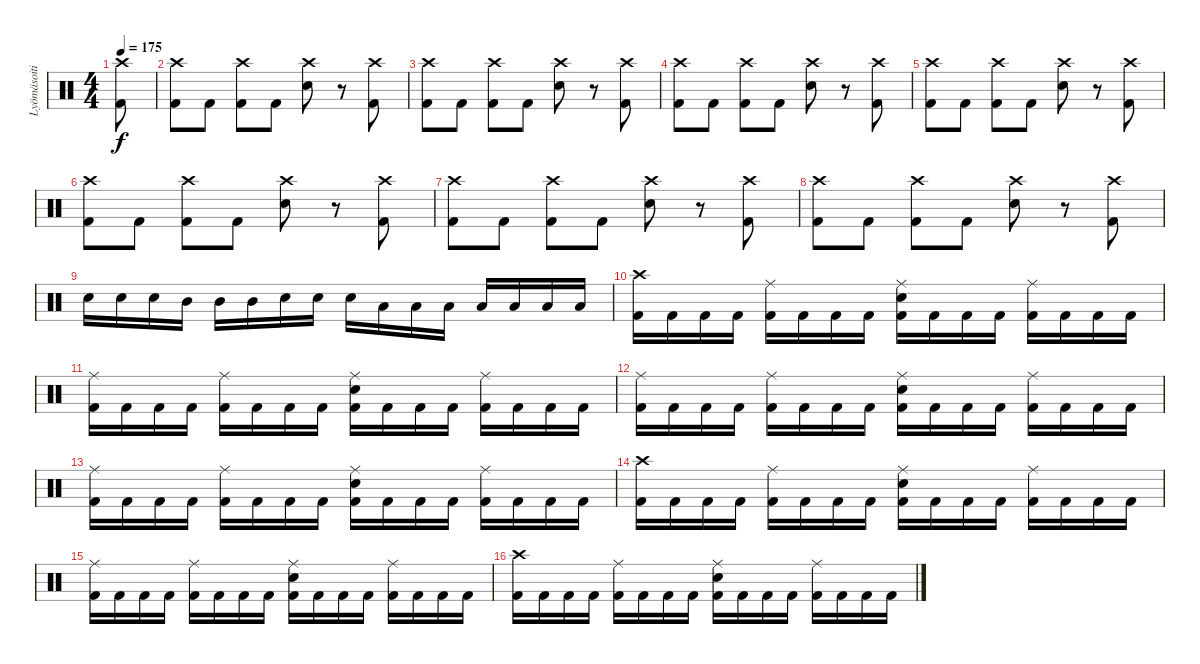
\track ("Lyömäsoitin" "Lyömäsoiti") {instrument percussion}
\staff {score}
\articulation defaults
\ts (4 4)
\tempo 175
\clef neutral
\ks c
("Kick (hit) 2" "Crash high (hit)").8{dy f} |
("Kick (hit) 2" "Crash high (hit)").8 "Kick (hit) 2".8 ("Kick (hit) 2" "Crash high (hit)").8 "Kick (hit) 2".8 ("Electric Snare (hit)" "Crash high (hit)").8 r.8 ("Kick (hit) 2" "Crash high (hit)").8 |
("Kick (hit) 2" "Crash high (hit)").8 "Kick (hit) 2".8 ("Kick (hit) 2" "Crash high (hit)").8 "Kick (hit) 2".8 ("Electric Snare (hit)" "Crash high (hit)").8 r.8 ("Kick (hit) 2" "Crash high (hit)").8 |
("Kick (hit) 2" "Crash high (hit)").8 "Kick (hit) 2".8 ("Kick (hit) 2" "Crash high (hit)").8 "Kick (hit) 2".8 ("Electric Snare (hit)" "Crash high (hit)").8 r.8 ("Kick (hit) 2" "Crash high (hit)").8 |
("Kick (hit) 2" "Crash high (hit)").8 "Kick (hit) 2".8 ("Kick (hit) 2" "Crash high (hit)").8 "Kick (hit) 2".8 ("Electric Snare (hit)" "Crash high (hit)").8 r.8 ("Kick (hit) 2" "Crash high (hit)").8 |
("Kick (hit) 2" "Crash high (hit)").8 "Kick (hit) 2".8 ("Kick (hit) 2" "Crash high (hit)").8 "Kick (hit) 2".8 ("Electric Snare (hit)" "Crash high (hit)").8 r.8 ("Kick (hit) 2" "Crash high (hit)").8 |
("Kick (hit) 2" "Crash high (hit)").8 "Kick (hit) 2".8 ("Kick (hit) 2" "Crash high (hit)").8 "Kick (hit) 2".8 ("Electric Snare (hit)" "Crash high (hit)").8 r.8 ("Kick (hit) 2" "Crash high (hit)").8 |
("Kick (hit) 2" "Crash high (hit)").8 "Kick (hit) 2".8 ("Kick (hit) 2" "Crash high (hit)").8 "Kick (hit) 2".8 ("Electric Snare (hit)" "Crash high (hit)").8 r.8 ("Kick (hit) 2" "Crash high (hit)").8 |
"Electric Snare (hit)".16 "Electric Snare (hit)".16 "Electric Snare (hit)".16 "Mid Tom (hit)".16 "Mid Tom (hit)".16 "Mid Tom (hit)".16 "Electric Snare (hit)".16 "Electric Snare (hit)".16 "Electric Snare (hit)".16 "Low Tom (hit)".16 "Low Tom (hit)".16 "Low Tom (hit)".16 "Low Floor Tom (hit)".16 "Low Floor Tom (hit)".16 "Low Floor Tom (hit)".16 "Low Floor Tom (hit)".16 |
("Kick (hit) 2" "Crash high (hit)").16 "Kick (hit) 2".16 "Kick (hit) 2".16 "Kick (hit) 2".16 ("Kick (hit) 2" "Ride (middle)").16 "Kick (hit) 2".16 "Kick (hit) 2".16 "Kick (hit) 2".16 ("Kick (hit) 2" "Electric Snare (hit)" "Ride (middle)").16 "Kick (hit) 2".16 "Kick (hit) 2".16 "Kick (hit) 2".16 ("Kick (hit) 2" "Ride (middle)").16 "Kick (hit) 2".16 "Kick (hit) 2".16 "Kick (hit) 2".16 |
("Kick (hit) 2" "Ride (middle)").16 "Kick (hit) 2".16 "Kick (hit) 2".16 "Kick (hit) 2".16 ("Kick (hit) 2" "Ride (middle)").16 "Kick (hit) 2".16 "Kick (hit) 2".16 "Kick (hit) 2".16 ("Kick (hit) 2" "Electric Snare (hit)" "Ride (middle)").16 "Kick (hit) 2".16 "Kick (hit) 2".16 "Kick (hit) 2".16 ("Kick (hit) 2" "Ride (middle)").16 "Kick (hit) 2".16 "Kick (hit) 2".16 "Kick (hit) 2".16 |
("Kick (hit) 2" "Ride (middle)").16 "Kick (hit) 2".16 "Kick (hit) 2".16 "Kick (hit) 2".16 ("Kick (hit) 2" "Ride (middle)").16 "Kick (hit) 2".16 "Kick (hit) 2".16 "Kick (hit) 2".16 ("Kick (hit) 2" "Electric Snare (hit)" "Ride (middle)").16 "Kick (hit) 2".16 "Kick (hit) 2".16 "Kick (hit) 2".16 ("Kick (hit) 2" "Ride (middle)").16 "Kick (hit) 2".16 "Kick (hit) 2".16 "Kick (hit) 2".16 |
("Kick (hit) 2" "Ride (middle)").16 "Kick (hit) 2".16 "Kick (hit) 2".16 "Kick (hit) 2".16 ("Kick (hit) 2" "Ride (middle)").16 "Kick (hit) 2".16 "Kick (hit) 2".16 "Kick (hit) 2".16 ("Kick (hit) 2" "Electric Snare (hit)" "Ride (middle)").16 "Kick (hit) 2".16 "Kick (hit) 2".16 "Kick (hit) 2".16 ("Kick (hit) 2" "Ride (middle)").16 "Kick (hit) 2".16 "Kick (hit) 2".16 "Kick (hit) 2".16 |
("Kick (hit) 2" "Crash high (hit)").16 "Kick (hit) 2".16 "Kick (hit) 2".16 "Kick (hit) 2".16 ("Kick (hit) 2" "Ride (middle)").16 "Kick (hit) 2".16 "Kick (hit) 2".16 "Kick (hit) 2".16 ("Kick (hit) 2" "Electric Snare (hit)" "Ride (middle)").16 "Kick (hit) 2".16 "Kick (hit) 2".16 "Kick (hit) 2".16 ("Kick (hit) 2" "Ride (middle)").16 "Kick (hit) 2".16 "Kick (hit) 2".16 "Kick (hit) 2".16 |
("Kick (hit) 2" "Ride (middle)").16 "Kick (hit) 2".16 "Kick (hit) 2".16 "Kick (hit) 2".16 ("Kick (hit) 2" "Ride (middle)").16 "Kick (hit) 2".16 "Kick (hit) 2".16 "Kick (hit) 2".16 ("Kick (hit) 2" "Electric Snare (hit)" "Ride (middle)").16 "Kick (hit) 2".16 "Kick (hit) 2".16 "Kick (hit) 2".16 ("Kick (hit) 2" "Ride (middle)").16 "Kick (hit) 2".16 "Kick (hit) 2".16 "Kick (hit) 2".16 |
("Kick (hit) 2" "Crash high (hit)").16 "Kick (hit) 2".16 "Kick (hit) 2".16 "Kick (hit) 2".16 ("Kick (hit) 2" "Ride (middle)").16 "Kick (hit) 2".16 "Kick (hit) 2".16 "Kick (hit) 2".16 ("Kick (hit) 2" "Electric Snare (hit)" "Ride (middle)").16 "Kick (hit) 2".16 "Kick (hit) 2".16 "Kick (hit) 2".16 ("Kick (hit) 2" "Ride (middle)").16 "Kick (hit) 2".16 "Kick (hit) 2".16 "Kick (hit) 2".16
